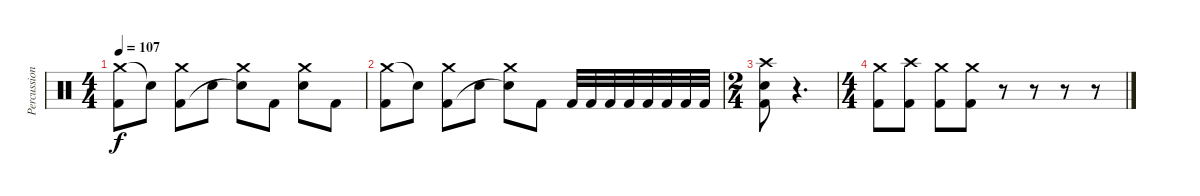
\track ("Percussions" "Percussion") {instrument percussion}
\staff {score}
\articulation defaults
\ts (4 4)
\tempo 107
\clef neutral
\ks c
("Crash medium (hit)" "Kick (hit) 2").8{dy f} "Snare (hit)"{t}.8 ("Crash medium (hit)" "Kick (hit) 2").8 "Electric Snare (hit)".8 ("Crash medium (hit)" "Snare (hit)"{t}).8 "Kick (hit) 2".8 ("Crash medium (hit)" "Electric Snare (hit)").8 "Kick (hit) 2".8 |
("Crash medium (hit)" "Kick (hit) 2").8 "Snare (hit)"{t}.8 ("Crash medium (hit)" "Kick (hit) 2").8 "Electric Snare (hit)".8 ("Crash medium (hit)" "Snare (hit)"{t}).8 "Kick (hit) 2".8 "Kick (hit) 2".32 "Kick (hit) 2".32 "Kick (hit) 2".32 "Kick (hit) 2".32 "Kick (hit) 2".32 "Kick (hit) 2".32 "Kick (hit) 2".32 "Kick (hit) 2".32 |
\ts (2 4)
("Crash high (hit)" "Electric Snare (hit)" "Kick (hit) 2").8 r.4{d} |
\ts (4 4)
("Crash medium (hit)" "Kick (hit) 2").8 ("Crash high (hit)" "Kick (hit) 2").8 ("Crash medium (hit)" "Kick (hit) 2").8 ("Crash medium (hit)" "Kick (hit) 2").8 r.8 r.8 r.8 r.8
